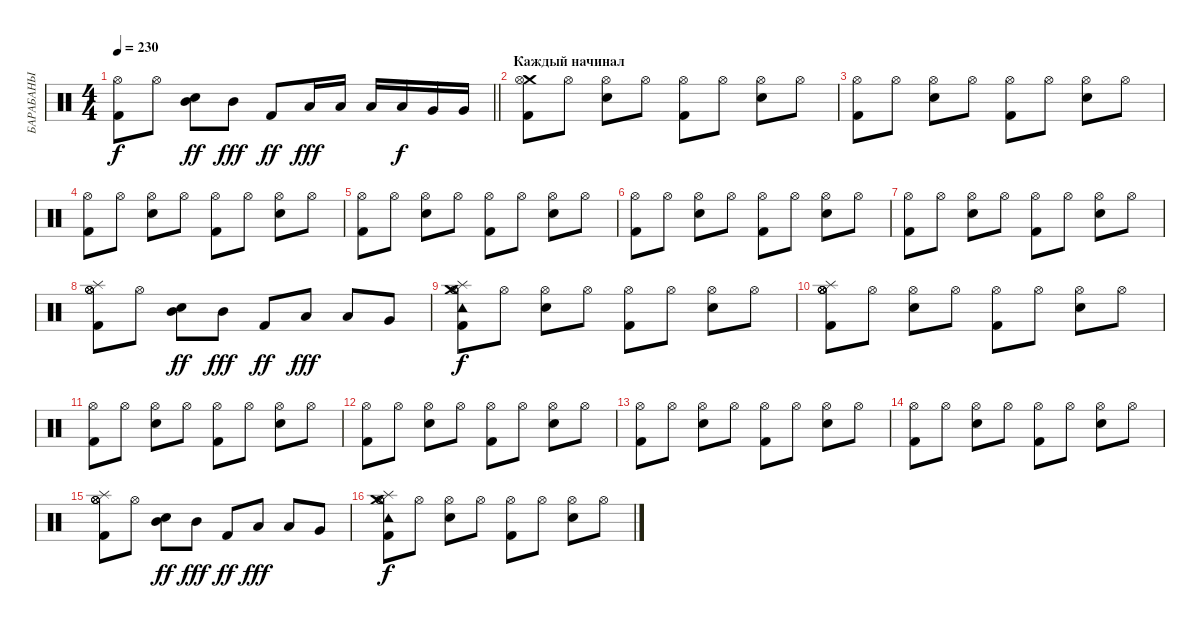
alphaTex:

\track ("БАРАБАНЫ" "БАРАБАНЫ") {instrument percussion}
\staff {score}
\articulation defaults
\ts (4 4)
\tempo 230
\clef neutral
\barLineRight lightlight
\ks c
("Hi-Hat (open)" "Kick (hit) 2").8{dy f} "Hi-Hat (open)".8 ("Mid Tom (hit)" "Electric Snare (hit)").8{dy ff} "Mid Tom (hit)".8{dy fff} "Kick (hit) 2".8{dy ff} "Low Tom (hit)".16{dy fff} "Low Tom (hit)".16 "Low Tom (hit)".16 "Low Tom (hit)".16{dy f} "Very Low Tom (hit)".16 "Very Low Tom (hit)".16 |
\section ("" "Каждый начинал")
("Crash medium (hit)" "Hi-Hat (open)" "Kick (hit) 2").8 "Hi-Hat (open)".8 ("Hi-Hat (open)" "Electric Snare (hit)").8 "Hi-Hat (open)".8 ("Hi-Hat (open)" "Kick (hit) 2").8 "Hi-Hat (open)".8 ("Hi-Hat (open)" "Electric Snare (hit)").8 "Hi-Hat (open)".8 |
("Hi-Hat (open)" "Kick (hit) 2").8 "Hi-Hat (open)".8 ("Hi-Hat (open)" "Electric Snare (hit)").8 "Hi-Hat (open)".8 ("Hi-Hat (open)" "Kick (hit) 2").8 "Hi-Hat (open)".8 ("Hi-Hat (open)" "Electric Snare (hit)").8 "Hi-Hat (open)".8 |
("Hi-Hat (open)" "Kick (hit) 2").8 "Hi-Hat (open)".8 ("Hi-Hat (open)" "Electric Snare (hit)").8 "Hi-Hat (open)".8 ("Hi-Hat (open)" "Kick (hit) 2").8 "Hi-Hat (open)".8 ("Hi-Hat (open)" "Electric Snare (hit)").8 "Hi-Hat (open)".8 |
("Hi-Hat (open)" "Kick (hit) 2").8 "Hi-Hat (open)".8 ("Hi-Hat (open)" "Electric Snare (hit)").8 "Hi-Hat (open)".8 ("Hi-Hat (open)" "Kick (hit) 2").8 "Hi-Hat (open)".8 ("Hi-Hat (open)" "Electric Snare (hit)").8 "Hi-Hat (open)".8 |
("Hi-Hat (open)" "Kick (hit) 2").8 "Hi-Hat (open)".8 ("Hi-Hat (open)" "Electric Snare (hit)").8 "Hi-Hat (open)".8 ("Hi-Hat (open)" "Kick (hit) 2").8 "Hi-Hat (open)".8 ("Hi-Hat (open)" "Electric Snare (hit)").8 "Hi-Hat (open)".8 |
("Hi-Hat (open)" "Kick (hit) 2").8 "Hi-Hat (open)".8 ("Hi-Hat (open)" "Electric Snare (hit)").8 "Hi-Hat (open)".8 ("Hi-Hat (open)" "Kick (hit) 2").8 "Hi-Hat (open)".8 ("Hi-Hat (open)" "Electric Snare (hit)").8 "Hi-Hat (open)".8 |
("Hi-Hat (open)" "Hi-Hat (open)" "Splash (hit)" "Hi-Hat (open)" "Kick (hit) 2").8 "Hi-Hat (open)".8 ("Mid Tom (hit)" "Electric Snare (hit)").8{dy ff} "Mid Tom (hit)".8{dy fff} "Kick (hit) 2".8{dy ff} "Low Tom (hit)".8{dy fff} "Low Tom (hit)".8 "Very Low Tom (hit)".8 |
("Crash medium (hit)" "Hi-Hat (open)" "Splash (hit)" "Tambourine (hit)" "Hi-Hat (open)" "Kick (hit) 2").8{dy f} "Hi-Hat (open)".8 ("Hi-Hat (open)" "Electric Snare (hit)").8 "Hi-Hat (open)".8 ("Hi-Hat (open)" "Kick (hit) 2").8 "Hi-Hat (open)".8 ("Hi-Hat (open)" "Electric Snare (hit)").8 "Hi-Hat (open)".8 |
("Hi-Hat (open)" "Hi-Hat (open)" "Splash (hit)" "Hi-Hat (open)" "Hi-Hat (open)" "Kick (hit) 2").8 "Hi-Hat (open)".8 ("Hi-Hat (open)" "Electric Snare (hit)").8 "Hi-Hat (open)".8 ("Hi-Hat (open)" "Kick (hit) 2").8 "Hi-Hat (open)".8 ("Hi-Hat (open)" "Electric Snare (hit)").8 "Hi-Hat (open)".8 |
("Hi-Hat (open)" "Kick (hit) 2").8 "Hi-Hat (open)".8 ("Hi-Hat (open)" "Electric Snare (hit)").8 "Hi-Hat (open)".8 ("Hi-Hat (open)" "Kick (hit) 2").8 "Hi-Hat (open)".8 ("Hi-Hat (open)" "Electric Snare (hit)").8 "Hi-Hat (open)".8 |
("Hi-Hat (open)" "Kick (hit) 2").8 "Hi-Hat (open)".8 ("Hi-Hat (open)" "Electric Snare (hit)").8 "Hi-Hat (open)".8 ("Hi-Hat (open)" "Kick (hit) 2").8 "Hi-Hat (open)".8 ("Hi-Hat (open)" "Electric Snare (hit)").8 "Hi-Hat (open)".8 |
("Hi-Hat (open)" "Kick (hit) 2").8 "Hi-Hat (open)".8 ("Hi-Hat (open)" "Electric Snare (hit)").8 "Hi-Hat (open)".8 ("Hi-Hat (open)" "Kick (hit) 2").8 "Hi-Hat (open)".8 ("Hi-Hat (open)" "Electric Snare (hit)").8 "Hi-Hat (open)".8 |
("Hi-Hat (open)" "Kick (hit) 2").8 "Hi-Hat (open)".8 ("Hi-Hat (open)" "Electric Snare (hit)").8 "Hi-Hat (open)".8 ("Hi-Hat (open)" "Kick (hit) 2").8 "Hi-Hat (open)".8 ("Hi-Hat (open)" "Electric Snare (hit)").8 "Hi-Hat (open)".8 |
("Hi-Hat (open)" "Hi-Hat (open)" "Splash (hit)" "Hi-Hat (open)" "Kick (hit) 2").8 "Hi-Hat (open)".8 ("Mid Tom (hit)" "Electric Snare (hit)").8{dy ff} "Mid Tom (hit)".8{dy fff} "Kick (hit) 2".8{dy ff} "Low Tom (hit)".8{dy fff} "Low Tom (hit)".8 "Very Low Tom (hit)".8 |
("Crash medium (hit)" "Hi-Hat (open)" "Splash (hit)" "Tambourine (hit)" "Hi-Hat (open)" "Kick (hit) 2").8{dy f} "Hi-Hat (open)".8 ("Hi-Hat (open)" "Electric Snare (hit)").8 "Hi-Hat (open)".8 ("Hi-Hat (open)" "Kick (hit) 2").8 "Hi-Hat (open)".8 ("Hi-Hat (open)" "Electric Snare (hit)").8 "Hi-Hat (open)".8
